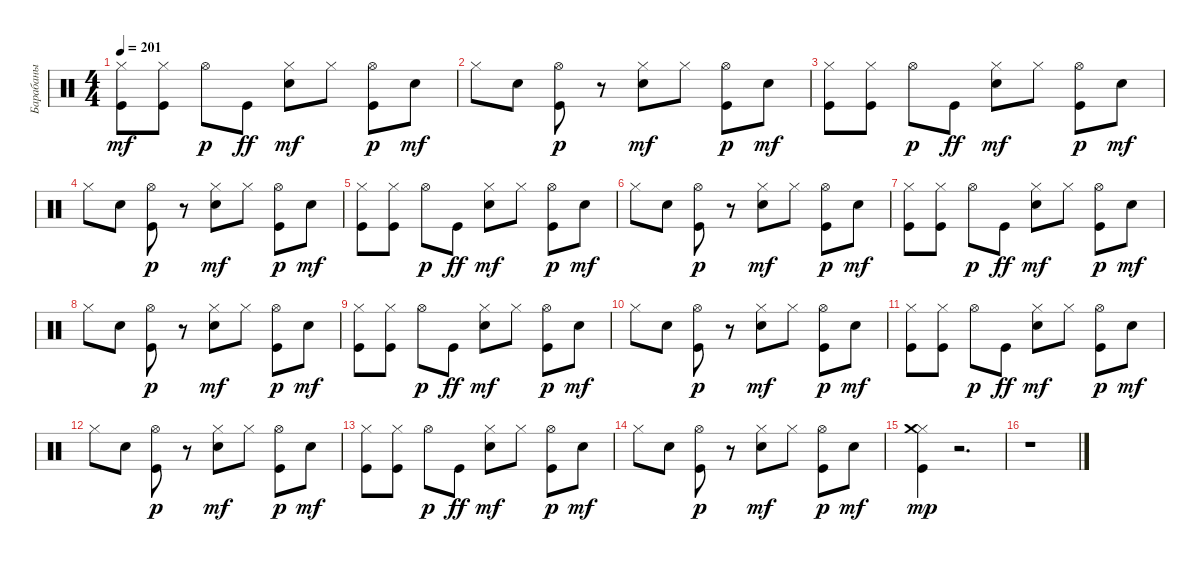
\track ("Барабаны" "Барабаны") {instrument percussion}
\staff {score}
\articulation defaults
\ts (4 4)
\tempo 201
\clef neutral
\ks c
("Kick (hit)" "Hi-Hat (closed)").8{dy mf} ("Kick (hit)" "Hi-Hat (closed)").8 "Hi-Hat (open)".8{dy p} "Kick (hit)".8{dy ff} ("Snare (hit) 2" "Hi-Hat (closed)").8{dy mf} "Hi-Hat (closed)".8 ("Kick (hit)" "Hi-Hat (open)").8{dy p} "Snare (hit) 2".8{dy mf} |
"Hi-Hat (closed)".8 "Snare (hit) 2".8 ("Kick (hit)" "Hi-Hat (open)").8{dy p} r.8 ("Snare (hit) 2" "Hi-Hat (closed)").8{dy mf} "Hi-Hat (closed)".8 ("Kick (hit)" "Hi-Hat (open)").8{dy p} "Snare (hit) 2".8{dy mf} |
("Kick (hit)" "Hi-Hat (closed)").8 ("Kick (hit)" "Hi-Hat (closed)").8 "Hi-Hat (open)".8{dy p} "Kick (hit)".8{dy ff} ("Snare (hit) 2" "Hi-Hat (closed)").8{dy mf} "Hi-Hat (closed)".8 ("Kick (hit)" "Hi-Hat (open)").8{dy p} "Snare (hit) 2".8{dy mf} |
"Hi-Hat (closed)".8 "Snare (hit) 2".8 ("Kick (hit)" "Hi-Hat (open)").8{dy p} r.8 ("Snare (hit) 2" "Hi-Hat (closed)").8{dy mf} "Hi-Hat (closed)".8 ("Kick (hit)" "Hi-Hat (open)").8{dy p} "Snare (hit) 2".8{dy mf} |
("Kick (hit)" "Hi-Hat (closed)").8 ("Kick (hit)" "Hi-Hat (closed)").8 "Hi-Hat (open)".8{dy p} "Kick (hit)".8{dy ff} ("Snare (hit) 2" "Hi-Hat (closed)").8{dy mf} "Hi-Hat (closed)".8 ("Kick (hit)" "Hi-Hat (open)").8{dy p} "Snare (hit) 2".8{dy mf} |
"Hi-Hat (closed)".8 "Snare (hit) 2".8 ("Kick (hit)" "Hi-Hat (open)").8{dy p} r.8 ("Snare (hit) 2" "Hi-Hat (closed)").8{dy mf} "Hi-Hat (closed)".8 ("Kick (hit)" "Hi-Hat (open)").8{dy p} "Snare (hit) 2".8{dy mf} |
("Kick (hit)" "Hi-Hat (closed)").8 ("Kick (hit)" "Hi-Hat (closed)").8 "Hi-Hat (open)".8{dy p} "Kick (hit)".8{dy ff} ("Snare (hit) 2" "Hi-Hat (closed)").8{dy mf} "Hi-Hat (closed)".8 ("Kick (hit)" "Hi-Hat (open)").8{dy p} "Snare (hit) 2".8{dy mf} |
"Hi-Hat (closed)".8 "Snare (hit) 2".8 ("Kick (hit)" "Hi-Hat (open)").8{dy p} r.8 ("Snare (hit) 2" "Hi-Hat (closed)").8{dy mf} "Hi-Hat (closed)".8 ("Kick (hit)" "Hi-Hat (open)").8{dy p} "Snare (hit) 2".8{dy mf} |
("Kick (hit)" "Hi-Hat (closed)").8 ("Kick (hit)" "Hi-Hat (closed)").8 "Hi-Hat (open)".8{dy p} "Kick (hit)".8{dy ff} ("Snare (hit) 2" "Hi-Hat (closed)").8{dy mf} "Hi-Hat (closed)".8 ("Kick (hit)" "Hi-Hat (open)").8{dy p} "Snare (hit) 2".8{dy mf} |
"Hi-Hat (closed)".8 "Snare (hit) 2".8 ("Kick (hit)" "Hi-Hat (open)").8{dy p} r.8 ("Snare (hit) 2" "Hi-Hat (closed)").8{dy mf} "Hi-Hat (closed)".8 ("Kick (hit)" "Hi-Hat (open)").8{dy p} "Snare (hit) 2".8{dy mf} |
("Kick (hit)" "Hi-Hat (closed)").8 ("Kick (hit)" "Hi-Hat (closed)").8 "Hi-Hat (open)".8{dy p} "Kick (hit)".8{dy ff} ("Snare (hit) 2" "Hi-Hat (closed)").8{dy mf} "Hi-Hat (closed)".8 ("Kick (hit)" "Hi-Hat (open)").8{dy p} "Snare (hit) 2".8{dy mf} |
"Hi-Hat (closed)".8 "Snare (hit) 2".8 ("Kick (hit)" "Hi-Hat (open)").8{dy p} r.8 ("Snare (hit) 2" "Hi-Hat (closed)").8{dy mf} "Hi-Hat (closed)".8 ("Kick (hit)" "Hi-Hat (open)").8{dy p} "Snare (hit) 2".8{dy mf} |
("Kick (hit)" "Hi-Hat (closed)").8 ("Kick (hit)" "Hi-Hat (closed)").8 "Hi-Hat (open)".8{dy p} "Kick (hit)".8{dy ff} ("Snare (hit) 2" "Hi-Hat (closed)").8{dy mf} "Hi-Hat (closed)".8 ("Kick (hit)" "Hi-Hat (open)").8{dy p} "Snare (hit) 2".8{dy mf} |
"Hi-Hat (closed)".8 "Snare (hit) 2".8 ("Kick (hit)" "Hi-Hat (open)").8{dy p} r.8 ("Snare (hit) 2" "Hi-Hat (closed)").8{dy mf} "Hi-Hat (closed)".8 ("Kick (hit)" "Hi-Hat (open)").8{dy p} "Snare (hit) 2".8{dy mf} |
("Kick (hit)" "Hi-Hat (closed)" "Crash medium (hit)").4{dy mp} r.2{d} |
r.1
